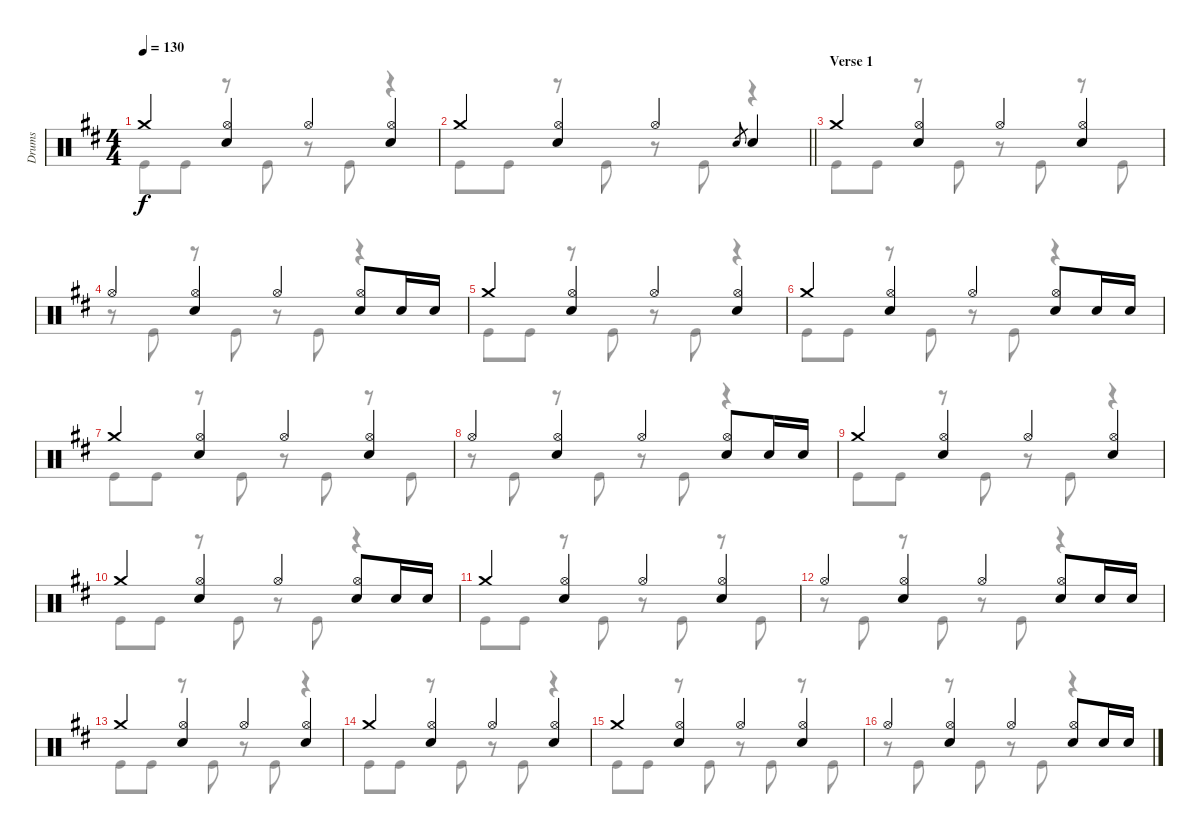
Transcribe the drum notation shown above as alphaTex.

\track ("Drums" "Drums") {instrument percussion}
\staff {score}
\articulation defaults
\voice
\ts (4 4)
\tempo 130
\clef neutral
\ks d "Crash medium (hit)".4{dy f}
("Hi-Hat (open)" "Electric Snare (hit)").4 "Hi-Hat (open)".4 ("Hi-Hat (open)" "Electric Snare (hit)").4 |
\barLineRight lightlight "Crash medium (hit)".4
("Hi-Hat (open)" "Electric Snare (hit)").4 "Hi-Hat (open)".4 "Electric Snare (hit)".8{gr} "Electric Snare (hit)".4 |
\section ("" "Verse 1")
"Crash medium (hit)".4 ("Hi-Hat (open)" "Electric Snare (hit)").4 "Hi-Hat (open)".4 ("Hi-Hat (open)" "Electric Snare (hit)").4 |
"Hi-Hat (open)".4 ("Hi-Hat (open)" "Electric Snare (hit)").4 "Hi-Hat (open)".4 ("Hi-Hat (open)" "Electric Snare (hit)").8 "Electric Snare (hit)".16 "Electric Snare (hit)".16 |
"Crash medium (hit)".4 ("Hi-Hat (open)" "Electric Snare (hit)").4 "Hi-Hat (open)".4 ("Hi-Hat (open)" "Electric Snare (hit)").4 |
"Crash medium (hit)".4 ("Hi-Hat (open)" "Electric Snare (hit)").4 "Hi-Hat (open)".4 ("Hi-Hat (open)" "Electric Snare (hit)").8 "Electric Snare (hit)".16 "Electric Snare (hit)".16 |
"Crash medium (hit)".4 ("Hi-Hat (open)" "Electric Snare (hit)").4 "Hi-Hat (open)".4 ("Hi-Hat (open)" "Electric Snare (hit)").4 |
"Hi-Hat (open)".4 ("Hi-Hat (open)" "Electric Snare (hit)").4 "Hi-Hat (open)".4 ("Hi-Hat (open)" "Electric Snare (hit)").8 "Electric Snare (hit)".16 "Electric Snare (hit)".16 |
"Crash medium (hit)".4 ("Hi-Hat (open)" "Electric Snare (hit)").4 "Hi-Hat (open)".4 ("Hi-Hat (open)" "Electric Snare (hit)").4 |
"Crash medium (hit)".4 ("Hi-Hat (open)" "Electric Snare (hit)").4 "Hi-Hat (open)".4 ("Hi-Hat (open)" "Electric Snare (hit)").8 "Electric Snare (hit)".16 "Electric Snare (hit)".16 |
"Crash medium (hit)".4 ("Hi-Hat (open)" "Electric Snare (hit)").4 "Hi-Hat (open)".4 ("Hi-Hat (open)" "Electric Snare (hit)").4 |
"Hi-Hat (open)".4 ("Hi-Hat (open)" "Electric Snare (hit)").4 "Hi-Hat (open)".4 ("Hi-Hat (open)" "Electric Snare (hit)").8 "Electric Snare (hit)".16 "Electric Snare (hit)".16 |
"Crash medium (hit)".4 ("Hi-Hat (open)" "Electric Snare (hit)").4 "Hi-Hat (open)".4 ("Hi-Hat (open)" "Electric Snare (hit)").4 |
"Crash medium (hit)".4 ("Hi-Hat (open)" "Electric Snare (hit)").4 "Hi-Hat (open)".4 ("Hi-Hat (open)" "Electric Snare (hit)").4 |
"Crash medium (hit)".4 ("Hi-Hat (open)" "Electric Snare (hit)").4 "Hi-Hat (open)".4 ("Hi-Hat (open)" "Electric Snare (hit)").4 |
"Hi-Hat (open)".4 ("Hi-Hat (open)" "Electric Snare (hit)").4 "Hi-Hat (open)".4 ("Hi-Hat (open)" "Electric Snare (hit)").8 "Electric Snare (hit)".16 "Electric Snare (hit)".16
\voice
\clef neutral
\ottava regular
\simile none
\ks d "Kick (hit)".8{dy f} "Kick (hit)".8
r.8 "Kick (hit)".8 r.8 "Kick (hit)".8 r.4 |
\barLineRight lightlight "Kick (hit)".8 "Kick (hit)".8
r.8 "Kick (hit)".8 r.8 "Kick (hit)".8 r.4 |
"Kick (hit)".8 "Kick (hit)".8 r.8 "Kick (hit)".8 r.8 "Kick (hit)".8 r.8 "Kick (hit)".8 |
r.8 "Kick (hit)".8 r.8 "Kick (hit)".8 r.8 "Kick (hit)".8 r.4 |
"Kick (hit)".8 "Kick (hit)".8 r.8 "Kick (hit)".8 r.8 "Kick (hit)".8 r.4 |
"Kick (hit)".8 "Kick (hit)".8 r.8 "Kick (hit)".8 r.8 "Kick (hit)".8 r.4 |
"Kick (hit)".8 "Kick (hit)".8 r.8 "Kick (hit)".8 r.8 "Kick (hit)".8 r.8 "Kick (hit)".8 |
r.8 "Kick (hit)".8 r.8 "Kick (hit)".8 r.8 "Kick (hit)".8 r.4 |
"Kick (hit)".8 "Kick (hit)".8 r.8 "Kick (hit)".8 r.8 "Kick (hit)".8 r.4 |
"Kick (hit)".8 "Kick (hit)".8 r.8 "Kick (hit)".8 r.8 "Kick (hit)".8 r.4 |
"Kick (hit)".8 "Kick (hit)".8 r.8 "Kick (hit)".8 r.8 "Kick (hit)".8 r.8 "Kick (hit)".8 |
r.8 "Kick (hit)".8 r.8 "Kick (hit)".8 r.8 "Kick (hit)".8 r.4 |
"Kick (hit)".8 "Kick (hit)".8 r.8 "Kick (hit)".8 r.8 "Kick (hit)".8 r.4 |
"Kick (hit)".8 "Kick (hit)".8 r.8 "Kick (hit)".8 r.8 "Kick (hit)".8 r.4 |
"Kick (hit)".8 "Kick (hit)".8 r.8 "Kick (hit)".8 r.8 "Kick (hit)".8 r.8 "Kick (hit)".8 |
r.8 "Kick (hit)".8 r.8 "Kick (hit)".8 r.8 "Kick (hit)".8 r.4
